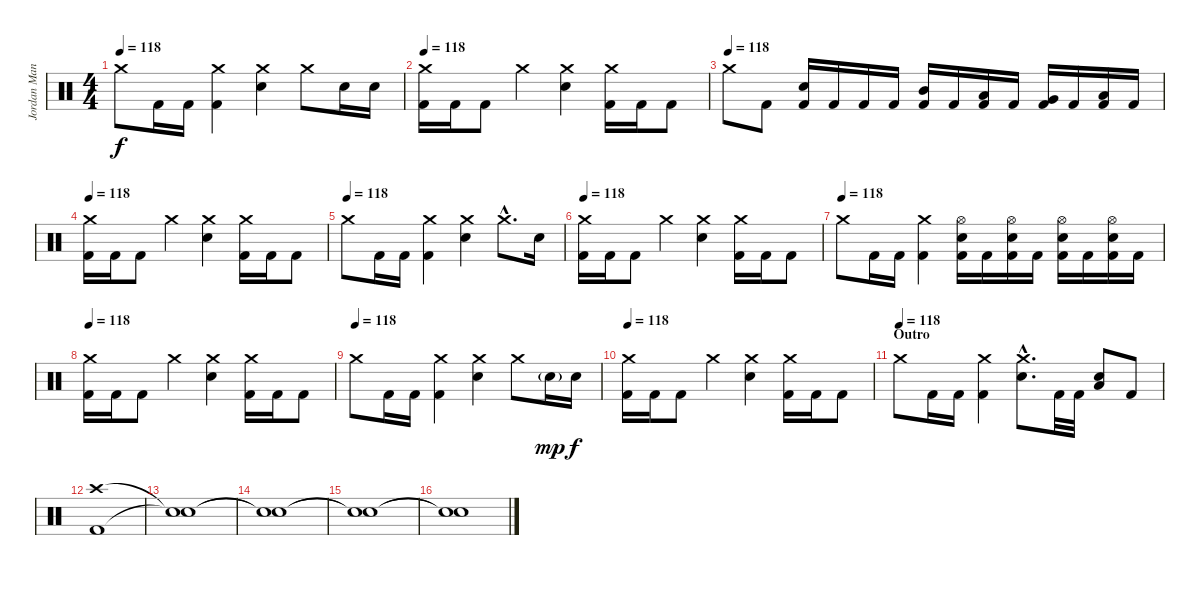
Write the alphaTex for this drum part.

\track ("Jordan Mancino (Drums)" "Jordan Man") {instrument percussion}
\staff {score}
\articulation defaults
\ts (4 4)
\tempo 118
\clef neutral
\ks c "Crash medium (hit)".8{dy f} "Kick (hit) 2".16 "Kick (hit) 2".16
("Crash medium (hit)" "Kick (hit) 2").4 ("Crash medium (hit)" "Snare (hit) 2").4 "Crash medium (hit)".8 "Snare (hit) 2".16 "Snare (hit) 2".16 |
\tempo 118
("Crash medium (hit)" "Kick (hit) 2").16 "Kick (hit) 2".16 "Kick (hit) 2".8 "Crash medium (hit)".4 ("Crash medium (hit)" "Snare (hit) 2").4 ("Crash medium (hit)" "Kick (hit) 2").16 "Kick (hit) 2".16 "Kick (hit) 2".8 |
\tempo (118)
"Crash medium (hit)".8 "Kick (hit) 2".8 ("Snare (hit) 2" "Kick (hit) 2").16 "Kick (hit) 2".16 "Kick (hit) 2".16 "Kick (hit) 2".16 ("Mid Tom (hit)" "Kick (hit) 2").16 "Kick (hit) 2".16 ("Low Tom (hit)" "Kick (hit) 2").16 "Kick (hit) 2".16 ("Very Low Tom (hit)" "Kick (hit) 2").16 "Kick (hit) 2".16 ("Low Floor Tom (hit)" "Kick (hit) 2").16 "Kick (hit) 2".16 |
\tempo 118
("Crash medium (hit)" "Kick (hit) 2").16 "Kick (hit) 2".16 "Kick (hit) 2".8 "Crash medium (hit)".4 ("Crash medium (hit)" "Snare (hit) 2").4 ("Crash medium (hit)" "Kick (hit) 2").16 "Kick (hit) 2".16 "Kick (hit) 2".8 |
\tempo (118)
"Crash medium (hit)".8 "Kick (hit) 2".16 "Kick (hit) 2".16 ("Crash medium (hit)" "Kick (hit) 2").4 ("Crash medium (hit)" "Snare (hit) 2").4 "Crash medium (hit)"{hac}.8{d} "Snare (hit) 2".16 |
\tempo 118
("Crash medium (hit)" "Kick (hit) 2").16 "Kick (hit) 2".16 "Kick (hit) 2".8 "Crash medium (hit)".4 ("Crash medium (hit)" "Snare (hit) 2").4 ("Crash medium (hit)" "Kick (hit) 2").16 "Kick (hit) 2".16 "Kick (hit) 2".8 |
\tempo (118)
"Crash medium (hit)".8 "Kick (hit) 2".16 "Kick (hit) 2".16 ("Crash medium (hit)" "Kick (hit) 2").4 ("Hi-Hat (open)" "Snare (hit) 2" "Kick (hit) 2").16 "Kick (hit) 2".16 ("Hi-Hat (open)" "Snare (hit) 2" "Kick (hit) 2").16 "Kick (hit) 2".16 ("Hi-Hat (open)" "Snare (hit) 2" "Kick (hit) 2").16 "Kick (hit) 2".16 ("Hi-Hat (open)" "Snare (hit) 2" "Kick (hit) 2").16 "Kick (hit) 2".16 |
\tempo 118
("Crash medium (hit)" "Kick (hit) 2").16 "Kick (hit) 2".16 "Kick (hit) 2".8 "Crash medium (hit)".4 ("Crash medium (hit)" "Snare (hit) 2").4 ("Crash medium (hit)" "Kick (hit) 2").16 "Kick (hit) 2".16 "Kick (hit) 2".8 |
\tempo (118)
"Crash medium (hit)".8 "Kick (hit) 2".16 "Kick (hit) 2".16 ("Crash medium (hit)" "Kick (hit) 2").4 ("Crash medium (hit)" "Snare (hit) 2").4 "Crash medium (hit)".8 "Snare (hit) 2"{g}.16{dy mp} "Snare (hit) 2".16{dy f} |
\tempo 118
("Crash medium (hit)" "Kick (hit) 2").16 "Kick (hit) 2".16 "Kick (hit) 2".8 "Crash medium (hit)".4 ("Crash medium (hit)" "Snare (hit) 2").4 ("Crash medium (hit)" "Kick (hit) 2").16 "Kick (hit) 2".16 "Kick (hit) 2".8 |
\section ("" "Outro")
\tempo (118)
"Crash medium (hit)".8 "Kick (hit) 2".16 "Kick (hit) 2".16 ("Crash medium (hit)" "Kick (hit) 2").4 ("Crash medium (hit)"{hac} "Snare (hit) 2"{hac}).8{d} "Kick (hit) 2".32 "Kick (hit) 2".32 ("Low Floor Tom (hit)" "Snare (hit) 2").8 "Kick (hit) 2".8 |
("Crash high (hit)" "Kick (hit) 2").1 |
("Snare (hit)"{t} "Snare (hit)"{t}).1 |
("Snare (hit)"{t} "Snare (hit)"{t}).1 |
("Snare (hit)"{t} "Snare (hit)"{t}).1 |
("Snare (hit)"{t} "Snare (hit)"{t}).1
